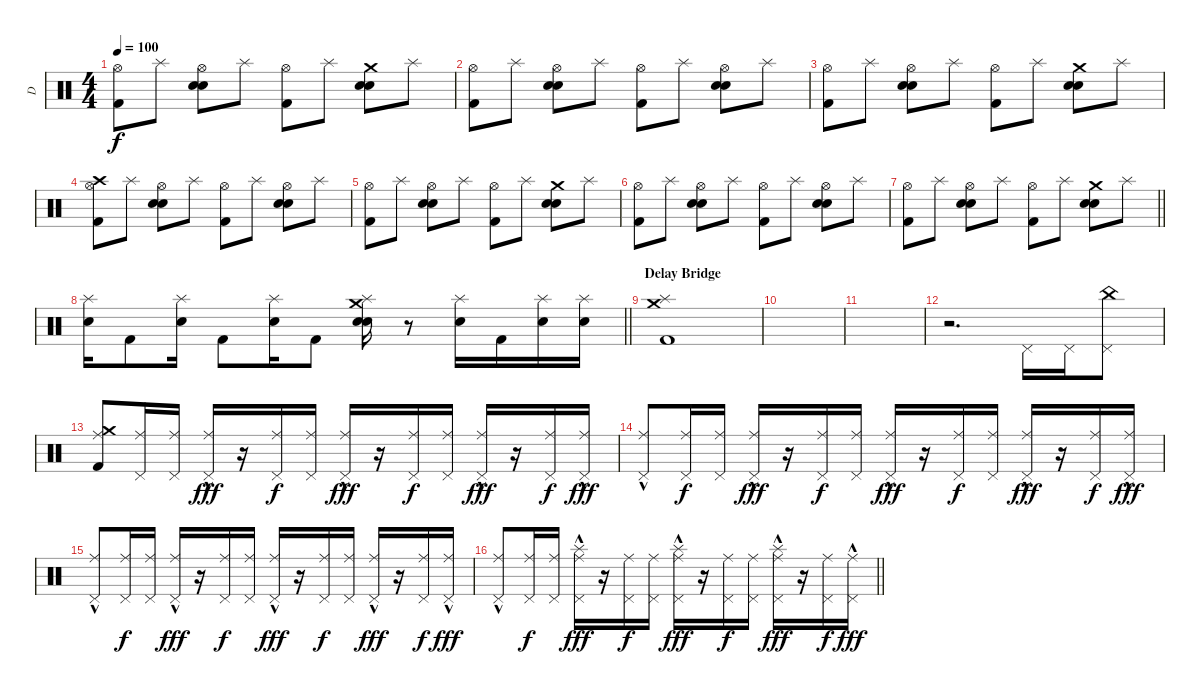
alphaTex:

\track ("D" "D") {instrument percussion}
\staff {score}
\articulation defaults
\ts (4 4)
\tempo 100
\clef neutral
\ks c
("Kick (hit) 2" "Hi-Hat (open)").8{dy f} "Splash (hit)".8 ("Electric Snare (hit)" "Electric Snare (hit)" "Hi-Hat (open)").8 "Splash (hit)".8 ("Kick (hit) 2" "Hi-Hat (open)").8 "Splash (hit)".8 ("Crash medium (hit)" "Electric Snare (hit)" "Electric Snare (hit)").8 "Splash (hit)".8 |
("Kick (hit) 2" "Hi-Hat (open)").8 "Splash (hit)".8 ("Electric Snare (hit)" "Electric Snare (hit)" "Hi-Hat (open)").8 "Splash (hit)".8 ("Kick (hit) 2" "Hi-Hat (open)").8 "Splash (hit)".8 ("Electric Snare (hit)" "Electric Snare (hit)" "Hi-Hat (open)").8 "Splash (hit)".8 |
("Kick (hit) 2" "Hi-Hat (open)").8 "Splash (hit)".8 ("Electric Snare (hit)" "Electric Snare (hit)" "Hi-Hat (open)").8 "Splash (hit)".8 ("Kick (hit) 2" "Hi-Hat (open)").8 "Splash (hit)".8 ("Crash medium (hit)" "Electric Snare (hit)" "Electric Snare (hit)").8 "Splash (hit)".8 |
("Crash high (hit)" "Kick (hit) 2" "Hi-Hat (open)").8 "Splash (hit)".8 ("Electric Snare (hit)" "Electric Snare (hit)" "Hi-Hat (open)").8 "Splash (hit)".8 ("Kick (hit) 2" "Hi-Hat (open)").8 "Splash (hit)".8 ("Electric Snare (hit)" "Electric Snare (hit)" "Hi-Hat (open)").8 "Splash (hit)".8 |
("Kick (hit) 2" "Hi-Hat (open)").8 "Splash (hit)".8 ("Electric Snare (hit)" "Electric Snare (hit)" "Hi-Hat (open)").8 "Splash (hit)".8 ("Kick (hit) 2" "Hi-Hat (open)").8 "Splash (hit)".8 ("Crash medium (hit)" "Electric Snare (hit)" "Electric Snare (hit)").8 "Splash (hit)".8 |
("Kick (hit) 2" "Hi-Hat (open)").8 "Splash (hit)".8 ("Electric Snare (hit)" "Electric Snare (hit)" "Hi-Hat (open)").8 "Splash (hit)".8 ("Kick (hit) 2" "Hi-Hat (open)").8 "Splash (hit)".8 ("Electric Snare (hit)" "Electric Snare (hit)" "Hi-Hat (open)").8 "Splash (hit)".8 |
\barLineRight lightlight
("Kick (hit) 2" "Hi-Hat (open)").8 "Splash (hit)".8 ("Electric Snare (hit)" "Electric Snare (hit)" "Hi-Hat (open)").8 "Splash (hit)".8 ("Kick (hit) 2" "Hi-Hat (open)").8 "Splash (hit)".8 ("Crash medium (hit)" "Electric Snare (hit)" "Electric Snare (hit)").8 "Splash (hit)".8 |
\barLineRight lightlight
("Electric Snare (hit)" "Splash (hit)").16 "Kick (hit) 2".8 ("Electric Snare (hit)" "Splash (hit)").16 "Kick (hit) 2".8 ("Electric Snare (hit)" "Splash (hit)").16 "Kick (hit) 2".8 ("Crash medium (hit)" "Electric Snare (hit)" "Electric Snare (hit)" "Splash (hit)").16 r.8 ("Electric Snare (hit)" "Splash (hit)").16 "Kick (hit) 2".16 ("Electric Snare (hit)" "Splash (hit)").16 ("Electric Snare (hit)" "Splash (hit)").16 |
\section ("" "Delay Bridge")
("Crash medium (hit)" "Splash (hit)" "Kick (hit) 2").1 |
|
|
r.2{d} "Pedal Hi-Hat (hit)".16 "Pedal Hi-Hat (hit)".16 ("China (hit)" "Pedal Hi-Hat (hit)").8 |
("Crash medium (hit)" "Ride (middle)" "Kick (hit) 2").8 ("Ride (middle)" "Pedal Hi-Hat (hit)").16 ("Ride (middle)" "Pedal Hi-Hat (hit)").16 ("Ride (middle)"{hac} "Pedal Hi-Hat (hit)"{hac}).16{dy fff} r.16 ("Ride (middle)" "Pedal Hi-Hat (hit)").16{dy f} ("Ride (middle)" "Pedal Hi-Hat (hit)").16 ("Ride (middle)"{hac} "Pedal Hi-Hat (hit)"{hac}).16{dy fff} r.16 ("Ride (middle)" "Pedal Hi-Hat (hit)").16{dy f} ("Ride (middle)" "Pedal Hi-Hat (hit)").16 ("Ride (middle)"{hac} "Pedal Hi-Hat (hit)"{hac}).16{dy fff} r.16 ("Ride (middle)" "Pedal Hi-Hat (hit)").16{dy f} ("Ride (middle)"{hac} "Pedal Hi-Hat (hit)"{hac}).16{dy fff} |
("Ride (middle)" "Pedal Hi-Hat (hit)"{hac}).8 ("Ride (middle)" "Pedal Hi-Hat (hit)").16{dy f} ("Ride (middle)" "Pedal Hi-Hat (hit)").16 ("Ride (middle)"{hac} "Pedal Hi-Hat (hit)"{hac}).16{dy fff} r.16 ("Ride (middle)" "Pedal Hi-Hat (hit)").16{dy f} ("Ride (middle)" "Pedal Hi-Hat (hit)").16 ("Ride (middle)"{hac} "Pedal Hi-Hat (hit)"{hac}).16{dy fff} r.16 ("Ride (middle)" "Pedal Hi-Hat (hit)").16{dy f} ("Ride (middle)" "Pedal Hi-Hat (hit)").16 ("Ride (middle)"{hac} "Pedal Hi-Hat (hit)"{hac}).16{dy fff} r.16 ("Ride (middle)" "Pedal Hi-Hat (hit)").16{dy f} ("Ride (middle)"{hac} "Pedal Hi-Hat (hit)"{hac}).16{dy fff} |
("Ride (middle)" "Pedal Hi-Hat (hit)"{hac}).8 ("Ride (middle)" "Pedal Hi-Hat (hit)").16{dy f} ("Ride (middle)" "Pedal Hi-Hat (hit)").16 ("Ride (middle)"{hac} "Pedal Hi-Hat (hit)"{hac}).16{dy fff} r.16 ("Ride (middle)" "Pedal Hi-Hat (hit)").16{dy f} ("Ride (middle)" "Pedal Hi-Hat (hit)").16 ("Ride (middle)"{hac} "Pedal Hi-Hat (hit)"{hac}).16{dy fff} r.16 ("Ride (middle)" "Pedal Hi-Hat (hit)").16{dy f} ("Ride (middle)" "Pedal Hi-Hat (hit)").16 ("Ride (middle)"{hac} "Pedal Hi-Hat (hit)"{hac}).16{dy fff} r.16 ("Ride (middle)" "Pedal Hi-Hat (hit)").16{dy f} ("Ride (middle)"{hac} "Pedal Hi-Hat (hit)"{hac}).16{dy fff} |
\barLineRight lightlight
("Ride (middle)" "Pedal Hi-Hat (hit)"{hac}).8 ("Ride (middle)" "Pedal Hi-Hat (hit)").16{dy f} ("Ride (middle)" "Pedal Hi-Hat (hit)").16 ("Splash (hit)" "Ride (middle)"{hac} "Pedal Hi-Hat (hit)"{hac}).16{dy fff} r.16 ("Ride (middle)" "Pedal Hi-Hat (hit)").16{dy f} ("Ride (middle)" "Pedal Hi-Hat (hit)").16 ("Splash (hit)" "Ride (middle)"{hac} "Pedal Hi-Hat (hit)"{hac}).16{dy fff} r.16 ("Ride (middle)" "Pedal Hi-Hat (hit)").16{dy f} ("Ride (middle)" "Pedal Hi-Hat (hit)").16 ("Splash (hit)" "Ride (middle)"{hac} "Pedal Hi-Hat (hit)"{hac}).16{dy fff} r.16 ("Ride (middle)" "Pedal Hi-Hat (hit)").16{dy f} ("Ride (middle)"{hac} "Pedal Hi-Hat (hit)"{hac}).16{dy fff}
